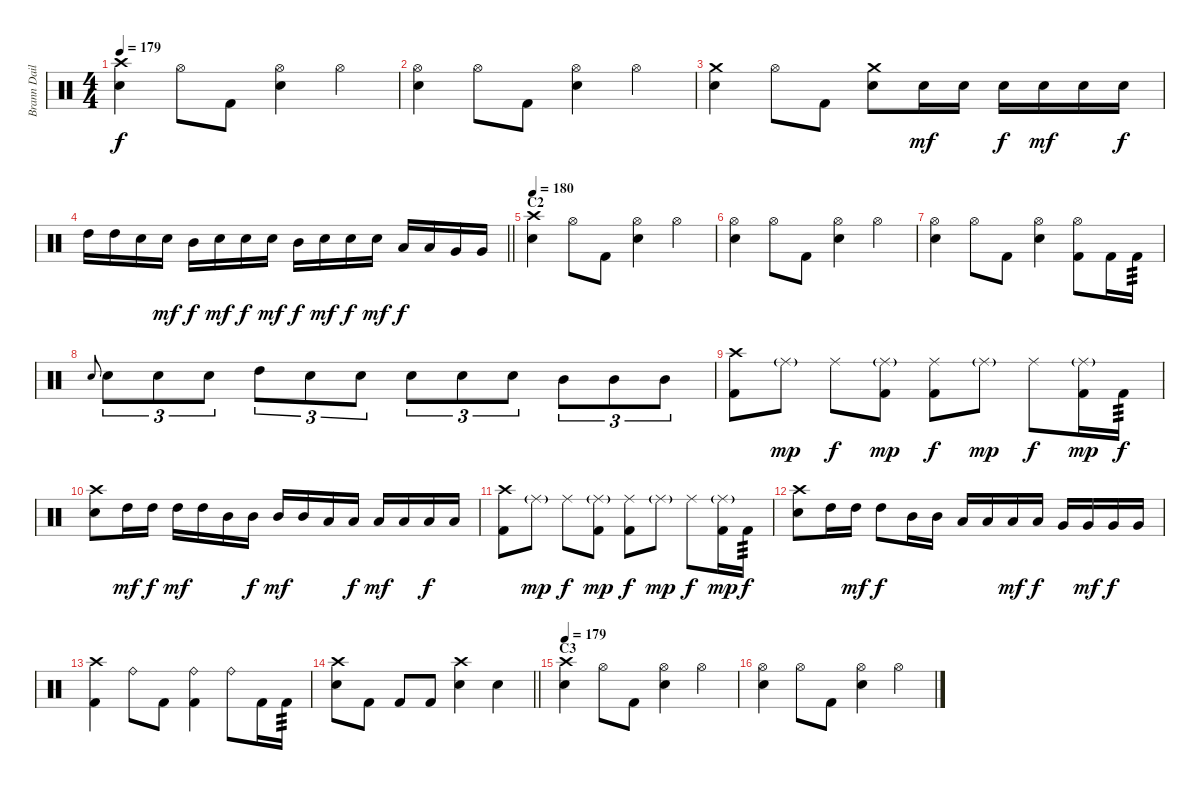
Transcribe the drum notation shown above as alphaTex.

\track ("Brann Dailor" "Brann Dail") {instrument percussion}
\staff {score}
\articulation defaults
\ts (4 4)
\tempo 179
\clef neutral
\ks c
("Crash high (hit)" "Snare (hit) 2").4{dy f} "Hi-Hat (open)".8 "Kick (hit) 2".8 ("Hi-Hat (open)" "Snare (hit) 2").4 "Hi-Hat (open)".4 |
("Hi-Hat (open)" "Snare (hit) 2").4 "Hi-Hat (open)".8 "Kick (hit) 2".8 ("Hi-Hat (open)" "Snare (hit) 2").4 "Hi-Hat (open)".4 |
("Crash medium (hit)" "Snare (hit) 2").4 "Hi-Hat (open)".8 "Kick (hit) 2".8 ("Crash medium (hit)" "Snare (hit) 2").8 "Snare (hit) 2".16{dy mf} "Snare (hit) 2".16 "Snare (hit) 2".16{dy f} "Snare (hit) 2".16{dy mf} "Snare (hit) 2".16 "Snare (hit) 2".16{dy f} |
\barLineRight lightlight "High Tom (hit)".16 "High Tom (hit)".16 "Snare (hit) 2".16 "Snare (hit) 2".16{dy mf} "Mid Tom (hit)".16{dy f} "Snare (hit) 2".16{dy mf} "Snare (hit) 2".16{dy f} "Snare (hit) 2".16{dy mf} "Mid Tom (hit)".16{dy f} "Snare (hit) 2".16{dy mf} "Snare (hit) 2".16{dy f} "Snare (hit) 2".16{dy mf} "Low Tom (hit)".16{dy f} "Low Tom (hit)".16 "Very Low Tom (hit)".16 "Very Low Tom (hit)".16
|
\section ("" "C2")
\tempo 180
("Crash high (hit)" "Snare (hit) 2").4 "Hi-Hat (open)".8 "Kick (hit) 2".8 ("Hi-Hat (open)" "Snare (hit) 2").4 "Hi-Hat (open)".4 |
("Hi-Hat (open)" "Snare (hit) 2").4 "Hi-Hat (open)".8 "Kick (hit) 2".8 ("Hi-Hat (open)" "Snare (hit) 2").4 "Hi-Hat (open)".4 |
("Hi-Hat (open)" "Snare (hit) 2").4 "Hi-Hat (open)".8 "Kick (hit) 2".8 ("Hi-Hat (open)" "Snare (hit) 2").4 ("Hi-Hat (open)" "Kick (hit) 2").8 "Kick (hit) 2".16 "Kick (hit) 2".16{tp 3} |
"Snare (hit) 2".8{gr onbeat} "Snare (hit) 2".8{tu (3 2)} "Snare (hit) 2".8{tu (3 2)} "Snare (hit) 2".8{tu (3 2)} "High Tom (hit)".8{tu (3 2)} "Snare (hit) 2".8{tu (3 2)} "Snare (hit) 2".8{tu (3 2)} "Snare (hit) 2".8{tu (3 2)} "Snare (hit) 2".8{tu (3 2)} "Snare (hit) 2".8{tu (3 2)} "Mid Tom (hit)".8{tu (3 2)} "Mid Tom (hit)".8{tu (3 2)} "Mid Tom (hit)".8{tu (3 2)} |
("Crash high (hit)" "Kick (hit) 2").8 "Ride (middle)"{g}.8{dy mp} "Ride (middle)".8{dy f} ("Ride (middle)"{g} "Kick (hit) 2").8{dy mp} ("Ride (middle)" "Kick (hit) 2").8{dy f} "Ride (middle)"{g}.8{dy mp} "Ride (middle)".8{dy f} ("Ride (middle)"{g} "Kick (hit) 2").16{dy mp} "Kick (hit) 2".16{tp 3 dy f} |
("Crash high (hit)" "Snare (hit) 2").8 "High Tom (hit)".16{dy mf} "High Tom (hit)".16{dy f} "High Tom (hit)".16{dy mf} "High Tom (hit)".16 "Mid Tom (hit)".16 "Mid Tom (hit)".16{dy f} "Mid Tom (hit)".16{dy mf} "Mid Tom (hit)".16 "Low Tom (hit)".16 "Low Tom (hit)".16{dy f} "Low Tom (hit)".16{dy mf} "Low Tom (hit)".16 "Low Tom (hit)".16{dy f} "Low Tom (hit)".16 |
("Crash high (hit)" "Kick (hit) 2").8 "Ride (middle)"{g}.8{dy mp} "Ride (middle)".8{dy f} ("Ride (middle)"{g} "Kick (hit) 2").8{dy mp} ("Ride (middle)" "Kick (hit) 2").8{dy f} "Ride (middle)"{g}.8{dy mp} "Ride (middle)".8{dy f} ("Ride (middle)"{g} "Kick (hit) 2").16{dy mp} "Kick (hit) 2".16{tp 3 dy f} |
("Crash high (hit)" "Snare (hit) 2").8 "High Tom (hit)".16 "High Tom (hit)".16{dy mf} "High Tom (hit)".8{dy f} "Mid Tom (hit)".16 "Mid Tom (hit)".16 "Low Tom (hit)".16 "Low Tom (hit)".16 "Low Tom (hit)".16{dy mf} "Low Tom (hit)".16{dy f} "Very Low Tom (hit)".16 "Very Low Tom (hit)".16{dy mf} "Very Low Tom (hit)".16{dy f} "Very Low Tom (hit)".16 |
("Crash high (hit)" "Kick (hit) 2").4 "Ride (bell)".8 "Kick (hit) 2".8 ("Ride (bell)" "Kick (hit) 2").4 "Ride (bell)".8 "Kick (hit) 2".16 "Kick (hit) 2".16{tp 3} |
\barLineRight lightlight
("Crash high (hit)" "Snare (hit) 2").8 "Kick (hit) 2".8 "Kick (hit) 2".8 "Kick (hit) 2".8 ("Crash high (hit)" "Snare (hit) 2").4 "Snare (hit) 2".4 |
\section ("" "C3")
\tempo 179
("Crash high (hit)" "Snare (hit) 2").4 "Hi-Hat (open)".8 "Kick (hit) 2".8 ("Hi-Hat (open)" "Snare (hit) 2").4 "Hi-Hat (open)".4 |
("Hi-Hat (open)" "Snare (hit) 2").4 "Hi-Hat (open)".8 "Kick (hit) 2".8 ("Hi-Hat (open)" "Snare (hit) 2").4 "Hi-Hat (open)".4
